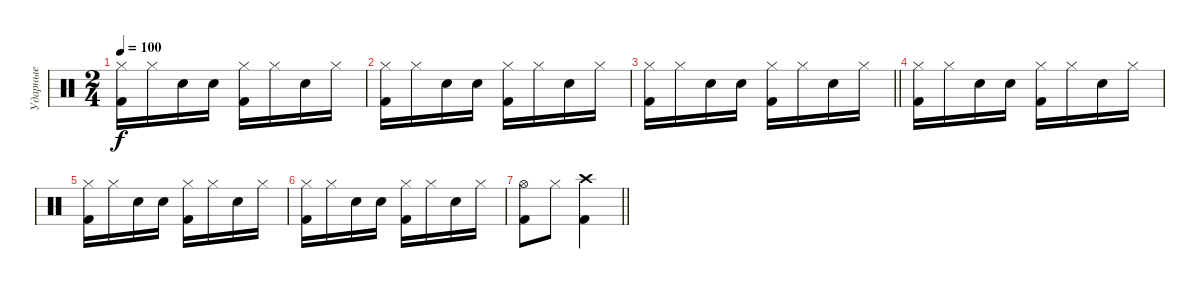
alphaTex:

\track ("Ударные" "Ударные") {instrument percussion}
\staff {score}
\articulation defaults
\ts (2 4)
\tempo 100
\clef neutral
\ks c
("Hi-Hat (closed)" "Kick (hit) 2").16{dy f} "Hi-Hat (closed)".16 "Electric Snare (hit)".16 "Electric Snare (hit)".16 ("Kick (hit) 2" "Hi-Hat (closed)").16 "Hi-Hat (closed)".16 "Electric Snare (hit)".16 "Hi-Hat (closed)".16 |
("Hi-Hat (closed)" "Kick (hit) 2").16 "Hi-Hat (closed)".16 "Electric Snare (hit)".16 "Electric Snare (hit)".16 ("Kick (hit) 2" "Hi-Hat (closed)").16 "Hi-Hat (closed)".16 "Electric Snare (hit)".16 "Hi-Hat (closed)".16 |
\barLineRight lightlight
("Hi-Hat (closed)" "Kick (hit) 2").16 "Hi-Hat (closed)".16 "Electric Snare (hit)".16 "Electric Snare (hit)".16 ("Kick (hit) 2" "Hi-Hat (closed)").16 "Hi-Hat (closed)".16 "Electric Snare (hit)".16 "Hi-Hat (closed)".16 |
("Hi-Hat (closed)" "Kick (hit) 2").16 "Hi-Hat (closed)".16 "Electric Snare (hit)".16 "Electric Snare (hit)".16 ("Kick (hit) 2" "Hi-Hat (closed)").16 "Hi-Hat (closed)".16 "Electric Snare (hit)".16 "Hi-Hat (closed)".16 |
("Hi-Hat (closed)" "Kick (hit) 2").16 "Hi-Hat (closed)".16 "Electric Snare (hit)".16 "Electric Snare (hit)".16 ("Kick (hit) 2" "Hi-Hat (closed)").16 "Hi-Hat (closed)".16 "Electric Snare (hit)".16 "Hi-Hat (closed)".16 |
("Hi-Hat (closed)" "Kick (hit) 2").16 "Hi-Hat (closed)".16 "Electric Snare (hit)".16 "Electric Snare (hit)".16 ("Kick (hit) 2" "Hi-Hat (closed)").16 "Hi-Hat (closed)".16 "Electric Snare (hit)".16 "Hi-Hat (closed)".16 |
\barLineRight lightlight
("Hi-Hat (open)" "Kick (hit) 2").8 "Hi-Hat (closed)".8 ("Kick (hit) 2" "Crash high (hit)").4
